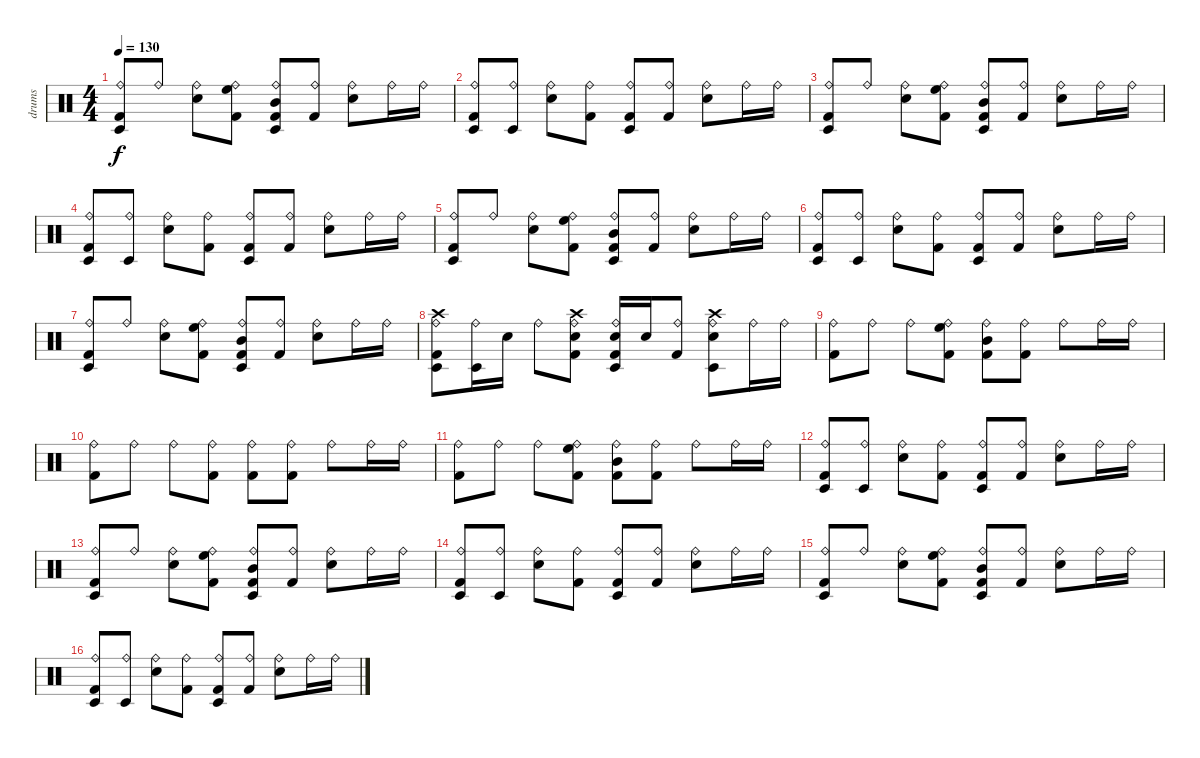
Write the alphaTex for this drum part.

\track ("drums" "drums") {instrument percussion}
\staff {score}
\articulation defaults
\ts (4 4)
\tempo 130
\clef neutral
\ks c
("Timbale low (hit)" "Ride (bell)" "Kick (hit) 2").8{dy f} "Ride (bell)".8 ("Electric Snare (hit)" "Ride (bell)").8 ("Kick (hit) 2" "Ride (bell)" "High Floor Tom (hit)").8 ("Mid Tom (hit)" "Timbale low (hit)" "Ride (bell)" "Kick (hit) 2").8 ("Kick (hit) 2" "Ride (bell)").8 ("Ride (bell)" "Electric Snare (hit)").8 "Ride (bell)".16 "Ride (bell)".16 |
("Kick (hit) 2" "Ride (bell)" "Timbale low (hit)").8 ("Timbale low (hit)" "Ride (bell)").8 ("Ride (bell)" "Electric Snare (hit)").8 ("Kick (hit) 2" "Ride (bell)").8 ("Ride (bell)" "Kick (hit) 2" "Timbale low (hit)").8 ("Ride (bell)" "Kick (hit) 2").8 ("Ride (bell)" "Electric Snare (hit)").8 "Ride (bell)".16 "Ride (bell)".16 |
("Timbale low (hit)" "Kick (hit) 2" "Ride (bell)").8 "Ride (bell)".8 ("Electric Snare (hit)" "Ride (bell)").8 ("Ride (bell)" "Kick (hit) 2" "High Floor Tom (hit)").8 ("Ride (bell)" "Kick (hit) 2" "Timbale low (hit)" "Mid Tom (hit)").8 ("Kick (hit) 2" "Ride (bell)").8 ("Ride (bell)" "Electric Snare (hit)").8 "Ride (bell)".16 "Ride (bell)".16 |
("Timbale low (hit)" "Kick (hit) 2" "Ride (bell)").8 ("Timbale low (hit)" "Ride (bell)").8 ("Ride (bell)" "Electric Snare (hit)").8 ("Ride (bell)" "Kick (hit) 2").8 ("Ride (bell)" "Kick (hit) 2" "Timbale low (hit)").8 ("Kick (hit) 2" "Ride (bell)").8 ("Electric Snare (hit)" "Ride (bell)").8 "Ride (bell)".16 "Ride (bell)".16 |
("Timbale low (hit)" "Kick (hit) 2" "Ride (bell)").8 "Ride (bell)".8 ("Electric Snare (hit)" "Ride (bell)").8 ("High Floor Tom (hit)" "Ride (bell)" "Kick (hit) 2").8 ("Timbale low (hit)" "Mid Tom (hit)" "Ride (bell)" "Kick (hit) 2").8 ("Kick (hit) 2" "Ride (bell)").8 ("Ride (bell)" "Electric Snare (hit)").8 "Ride (bell)".16 "Ride (bell)".16 |
("Kick (hit) 2" "Ride (bell)" "Timbale low (hit)").8 ("Ride (bell)" "Timbale low (hit)").8 ("Electric Snare (hit)" "Ride (bell)").8 ("Kick (hit) 2" "Ride (bell)").8 ("Ride (bell)" "Kick (hit) 2" "Timbale low (hit)").8 ("Ride (bell)" "Kick (hit) 2").8 ("Ride (bell)" "Electric Snare (hit)").8 "Ride (bell)".16 "Ride (bell)".16 |
("Kick (hit) 2" "Timbale low (hit)" "Ride (bell)").8 "Ride (bell)".8 ("Ride (bell)" "Electric Snare (hit)").8 ("Kick (hit) 2" "Ride (bell)" "High Floor Tom (hit)").8 ("Ride (bell)" "Kick (hit) 2" "Timbale low (hit)" "Mid Tom (hit)").8 ("Kick (hit) 2" "Ride (bell)").8 ("Ride (bell)" "Electric Snare (hit)").8 "Ride (bell)".16 "Ride (bell)".16 |
("Timbale low (hit)" "Kick (hit) 2" "Crash high (hit)" "Ride (bell)").8 ("Timbale low (hit)" "Ride (bell)").16 "Electric Snare (hit)".16 "Ride (bell)".8 ("Kick (hit) 2" "Crash high (hit)" "Electric Snare (hit)" "Ride (bell)").8 ("Kick (hit) 2" "Electric Snare (hit)" "Ride (bell)" "Timbale low (hit)").16 "Electric Snare (hit)".16 ("Ride (bell)" "Kick (hit) 2").8 ("Crash high (hit)" "Timbale low (hit)" "Ride (bell)" "Electric Snare (hit)").8 "Ride (bell)".16 "Ride (bell)".16 |
("Kick (hit) 2" "Ride (bell)").8 "Ride (bell)".8 "Ride (bell)".8 ("Ride (bell)" "High Floor Tom (hit)" "Kick (hit) 2").8 ("Kick (hit) 2" "Mid Tom (hit)" "Ride (bell)").8 ("Ride (bell)" "Kick (hit) 2").8 "Ride (bell)".8 "Ride (bell)".16 "Ride (bell)".16 |
("Ride (bell)" "Kick (hit) 2").8 "Ride (bell)".8 "Ride (bell)".8 ("Ride (bell)" "Kick (hit) 2").8 ("Ride (bell)" "Kick (hit) 2").8 ("Ride (bell)" "Kick (hit) 2").8 "Ride (bell)".8 "Ride (bell)".16 "Ride (bell)".16 |
("Ride (bell)" "Kick (hit) 2").8 "Ride (bell)".8 "Ride (bell)".8 ("High Floor Tom (hit)" "Kick (hit) 2" "Ride (bell)").8 ("Ride (bell)" "Mid Tom (hit)" "Kick (hit) 2").8 ("Kick (hit) 2" "Ride (bell)").8 "Ride (bell)".8 "Ride (bell)".16 "Ride (bell)".16 |
("Kick (hit) 2" "Timbale low (hit)" "Ride (bell)").8 ("Timbale low (hit)" "Ride (bell)").8 ("Ride (bell)" "Electric Snare (hit)").8 ("Kick (hit) 2" "Ride (bell)").8 ("Kick (hit) 2" "Ride (bell)" "Timbale low (hit)").8 ("Kick (hit) 2" "Ride (bell)").8 ("Electric Snare (hit)" "Ride (bell)").8 "Ride (bell)".16 "Ride (bell)".16 |
("Timbale low (hit)" "Ride (bell)" "Kick (hit) 2").8 "Ride (bell)".8 ("Ride (bell)" "Electric Snare (hit)").8 ("High Floor Tom (hit)" "Kick (hit) 2" "Ride (bell)").8 ("Mid Tom (hit)" "Timbale low (hit)" "Kick (hit) 2" "Ride (bell)").8 ("Ride (bell)" "Kick (hit) 2").8 ("Electric Snare (hit)" "Ride (bell)").8 "Ride (bell)".16 "Ride (bell)".16 |
("Ride (bell)" "Timbale low (hit)" "Kick (hit) 2").8 ("Ride (bell)" "Timbale low (hit)").8 ("Ride (bell)" "Electric Snare (hit)").8 ("Ride (bell)" "Kick (hit) 2").8 ("Kick (hit) 2" "Ride (bell)" "Timbale low (hit)").8 ("Ride (bell)" "Kick (hit) 2").8 ("Ride (bell)" "Electric Snare (hit)").8 "Ride (bell)".16 "Ride (bell)".16 |
("Timbale low (hit)" "Kick (hit) 2" "Ride (bell)").8 "Ride (bell)".8 ("Ride (bell)" "Electric Snare (hit)").8 ("Kick (hit) 2" "High Floor Tom (hit)" "Ride (bell)").8 ("Kick (hit) 2" "Timbale low (hit)" "Mid Tom (hit)" "Ride (bell)").8 ("Ride (bell)" "Kick (hit) 2").8 ("Electric Snare (hit)" "Ride (bell)").8 "Ride (bell)".16 "Ride (bell)".16 |
("Ride (bell)" "Timbale low (hit)" "Kick (hit) 2").8 ("Ride (bell)" "Timbale low (hit)").8 ("Ride (bell)" "Electric Snare (hit)").8 ("Ride (bell)" "Kick (hit) 2").8 ("Ride (bell)" "Kick (hit) 2" "Timbale low (hit)").8 ("Kick (hit) 2" "Ride (bell)").8 ("Electric Snare (hit)" "Ride (bell)").8 "Ride (bell)".16 "Ride (bell)".16
